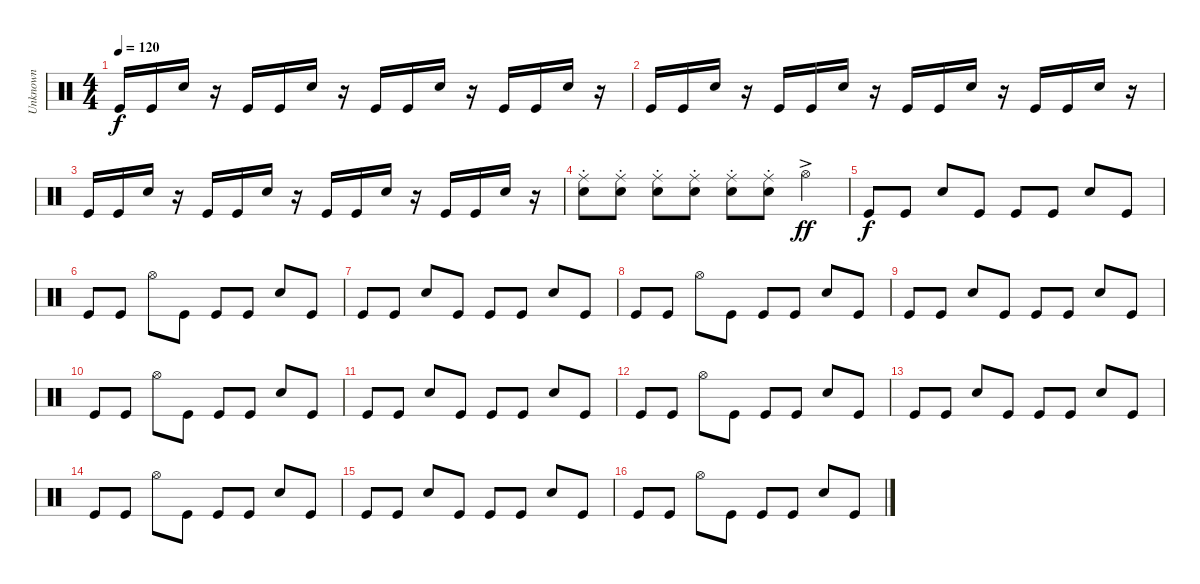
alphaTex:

\track ("Unknown" "Unknown") {instrument percussion}
\staff {score}
\articulation defaults
\ts (4 4)
\tempo 120
\clef neutral
\ks c "Kick (hit)".16{dy f} "Kick (hit)".16 "Snare (hit) 2".16
r.16 "Kick (hit)".16 "Kick (hit)".16 "Snare (hit) 2".16 r.16 "Kick (hit)".16 "Kick (hit)".16 "Snare (hit) 2".16 r.16 "Kick (hit)".16 "Kick (hit)".16 "Snare (hit) 2".16 r.16 |
"Kick (hit)".16 "Kick (hit)".16 "Snare (hit) 2".16 r.16 "Kick (hit)".16 "Kick (hit)".16 "Snare (hit) 2".16 r.16 "Kick (hit)".16 "Kick (hit)".16 "Snare (hit) 2".16 r.16 "Kick (hit)".16 "Kick (hit)".16 "Snare (hit) 2".16 r.16 |
"Kick (hit)".16 "Kick (hit)".16 "Snare (hit) 2".16 r.16 "Kick (hit)".16 "Kick (hit)".16 "Snare (hit) 2".16 r.16 "Kick (hit)".16 "Kick (hit)".16 "Snare (hit) 2".16 r.16 "Kick (hit)".16 "Kick (hit)".16 "Snare (hit) 2".16 r.16 |
("Ride (middle)"{st} "Snare (hit) 2"{st}).8 ("Ride (middle)"{st} "Snare (hit) 2"{st}).8 ("Ride (middle)"{st} "Snare (hit) 2"{st}).8 ("Ride (middle)"{st} "Snare (hit) 2"{st}).8 ("Ride (middle)"{st} "Snare (hit) 2"{st}).8 ("Ride (middle)"{st} "Snare (hit) 2"{st}).8 "Hi-Hat (open)"{ac}.4{dy ff} |
"Kick (hit)".8{dy f} "Kick (hit)".8 "Snare (hit) 2".8 "Kick (hit)".8 "Kick (hit)".8 "Kick (hit)".8 "Snare (hit) 2".8 "Kick (hit)".8 |
"Kick (hit)".8 "Kick (hit)".8 "Hi-Hat (open)".8 "Kick (hit)".8 "Kick (hit)".8 "Kick (hit)".8 "Snare (hit) 2".8 "Kick (hit)".8 |
"Kick (hit)".8 "Kick (hit)".8 "Snare (hit) 2".8 "Kick (hit)".8 "Kick (hit)".8 "Kick (hit)".8 "Snare (hit) 2".8 "Kick (hit)".8 |
"Kick (hit)".8 "Kick (hit)".8 "Hi-Hat (open)".8 "Kick (hit)".8 "Kick (hit)".8 "Kick (hit)".8 "Snare (hit) 2".8 "Kick (hit)".8 |
"Kick (hit)".8 "Kick (hit)".8 "Snare (hit) 2".8 "Kick (hit)".8 "Kick (hit)".8 "Kick (hit)".8 "Snare (hit) 2".8 "Kick (hit)".8 |
"Kick (hit)".8 "Kick (hit)".8 "Hi-Hat (open)".8 "Kick (hit)".8 "Kick (hit)".8 "Kick (hit)".8 "Snare (hit) 2".8 "Kick (hit)".8 |
"Kick (hit)".8 "Kick (hit)".8 "Snare (hit) 2".8 "Kick (hit)".8 "Kick (hit)".8 "Kick (hit)".8 "Snare (hit) 2".8 "Kick (hit)".8 |
"Kick (hit)".8 "Kick (hit)".8 "Hi-Hat (open)".8 "Kick (hit)".8 "Kick (hit)".8 "Kick (hit)".8 "Snare (hit) 2".8 "Kick (hit)".8 |
"Kick (hit)".8 "Kick (hit)".8 "Snare (hit) 2".8 "Kick (hit)".8 "Kick (hit)".8 "Kick (hit)".8 "Snare (hit) 2".8 "Kick (hit)".8 |
"Kick (hit)".8 "Kick (hit)".8 "Hi-Hat (open)".8 "Kick (hit)".8 "Kick (hit)".8 "Kick (hit)".8 "Snare (hit) 2".8 "Kick (hit)".8 |
"Kick (hit)".8 "Kick (hit)".8 "Snare (hit) 2".8 "Kick (hit)".8 "Kick (hit)".8 "Kick (hit)".8 "Snare (hit) 2".8 "Kick (hit)".8 |
"Kick (hit)".8 "Kick (hit)".8 "Hi-Hat (open)".8 "Kick (hit)".8 "Kick (hit)".8 "Kick (hit)".8 "Snare (hit) 2".8 "Kick (hit)".8
